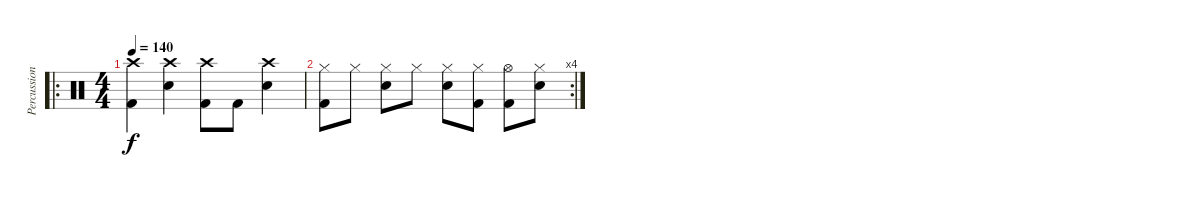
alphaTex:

\track ("Percussion" "Percussion") {instrument percussion}
\staff {score}
\articulation defaults
\ro
\ts (4 4)
\tempo 140
\clef neutral
\ks c
("Crash high (hit)" "Kick (hit) 2").4{dy f} ("Crash high (hit)" "Electric Snare (hit)").4 ("Crash high (hit)" "Kick (hit) 2").8 "Kick (hit) 2".8 ("Crash high (hit)" "Electric Snare (hit)").4 |
\rc 4
("Hi-Hat (closed)" "Kick (hit) 2").8 "Hi-Hat (closed)".8 ("Hi-Hat (closed)" "Electric Snare (hit)").8 "Hi-Hat (closed)".8 ("Hi-Hat (closed)" "Electric Snare (hit)").8 ("Hi-Hat (closed)" "Kick (hit) 2").8 ("Hi-Hat (open)" "Kick (hit) 2").8 ("Hi-Hat (closed)" "Electric Snare (hit)").8
